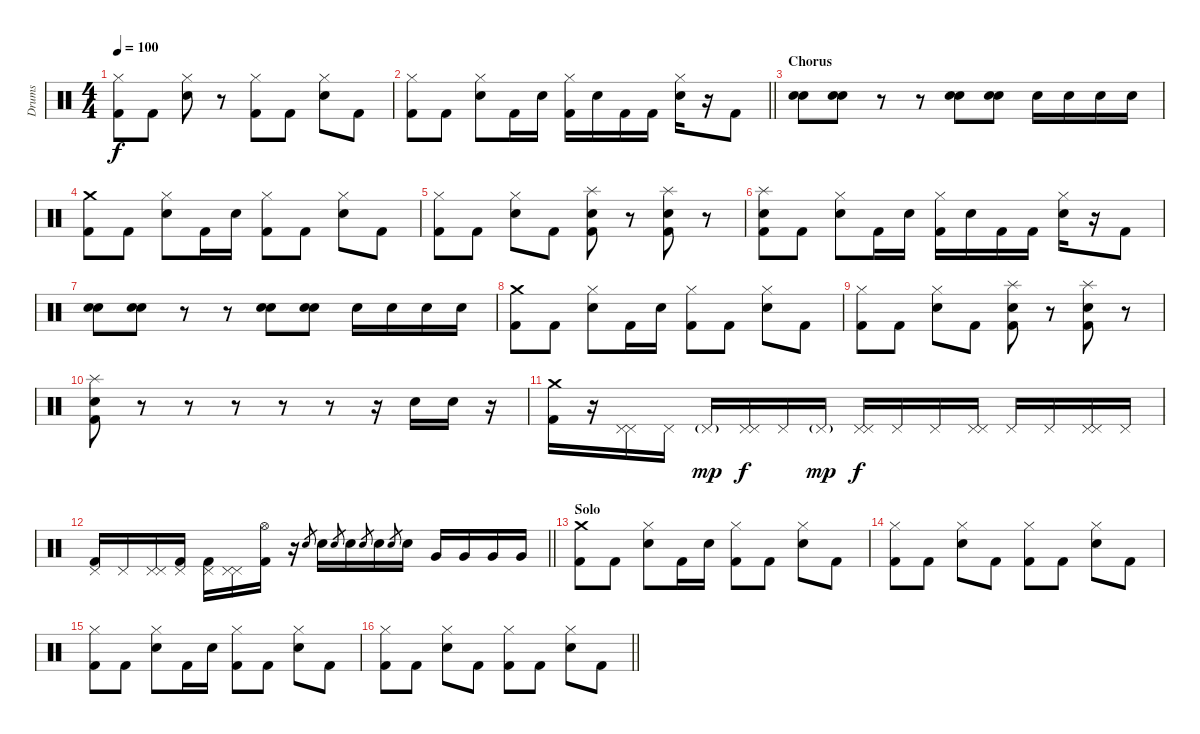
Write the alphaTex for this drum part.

\track ("Drums" "Drums") {instrument percussion}
\staff {score}
\articulation defaults
\ts (4 4)
\tempo 100
\clef neutral
\ks c
("Hi-Hat (closed)" "Kick (hit) 2").8{dy f} "Kick (hit) 2".8 ("Hi-Hat (closed)" "Snare (hit) 2").8 r.8 ("Hi-Hat (closed)" "Kick (hit) 2").8 "Kick (hit) 2".8 ("Hi-Hat (closed)" "Snare (hit) 2").8 "Kick (hit) 2".8 |
\barLineRight lightlight
("Hi-Hat (closed)" "Kick (hit) 2").8 "Kick (hit) 2".8 ("Hi-Hat (closed)" "Snare (hit) 2").8 "Kick (hit) 2".16 "Snare (hit) 2".16 ("Hi-Hat (closed)" "Kick (hit) 2").16 "Snare (hit) 2".16 "Kick (hit) 2".16 "Kick (hit) 2".16 ("Hi-Hat (closed)" "Snare (hit) 2").16 r.16 "Kick (hit) 2".8 |
\section ("" "Chorus")
("Snare (hit) 2" "Snare (hit) 2").8 ("Snare (hit) 2" "Snare (hit) 2").8 r.8 r.8 ("Snare (hit) 2" "Snare (hit) 2").8 ("Snare (hit) 2" "Snare (hit) 2").8 "Snare (hit) 2".16 "Snare (hit) 2".16 "Snare (hit) 2".16 "Snare (hit) 2".16 |
("Crash medium (hit)" "Kick (hit) 2").8 "Kick (hit) 2".8 ("Hi-Hat (closed)" "Snare (hit) 2").8 "Kick (hit) 2".16 "Snare (hit) 2".16 ("Hi-Hat (closed)" "Kick (hit) 2").8 "Kick (hit) 2".8 ("Hi-Hat (closed)" "Snare (hit) 2").8 "Kick (hit) 2".8 |
("Hi-Hat (closed)" "Kick (hit) 2").8 "Kick (hit) 2".8 ("Hi-Hat (closed)" "Snare (hit) 2").8 "Kick (hit) 2".8 ("Splash (hit)" "Snare (hit) 2" "Kick (hit) 2").8 r.8 ("Splash (hit)" "Snare (hit) 2" "Kick (hit) 2").8 r.8 |
("Splash (hit)" "Snare (hit) 2" "Kick (hit) 2").8 "Kick (hit) 2".8 ("Hi-Hat (closed)" "Snare (hit) 2").8 "Kick (hit) 2".16 "Snare (hit) 2".16 ("Hi-Hat (closed)" "Kick (hit) 2").16 "Snare (hit) 2".16 "Kick (hit) 2".16 "Kick (hit) 2".16 ("Hi-Hat (closed)" "Snare (hit) 2").16 r.16 "Kick (hit) 2".8 |
("Snare (hit) 2" "Snare (hit) 2").8 ("Snare (hit) 2" "Snare (hit) 2").8 r.8 r.8 ("Snare (hit) 2" "Snare (hit) 2").8 ("Snare (hit) 2" "Snare (hit) 2").8 "Snare (hit) 2".16 "Snare (hit) 2".16 "Snare (hit) 2".16 "Snare (hit) 2".16 |
("Crash medium (hit)" "Kick (hit) 2").8 "Kick (hit) 2".8 ("Hi-Hat (closed)" "Snare (hit) 2").8 "Kick (hit) 2".16 "Snare (hit) 2".16 ("Hi-Hat (closed)" "Kick (hit) 2").8 "Kick (hit) 2".8 ("Hi-Hat (closed)" "Snare (hit) 2").8 "Kick (hit) 2".8 |
("Hi-Hat (closed)" "Kick (hit) 2").8 "Kick (hit) 2".8 ("Hi-Hat (closed)" "Snare (hit) 2").8 "Kick (hit) 2".8 ("Splash (hit)" "Snare (hit) 2" "Kick (hit) 2").8 r.8 ("Splash (hit)" "Snare (hit) 2" "Kick (hit) 2").8 r.8 |
("Splash (hit)" "Snare (hit) 2" "Kick (hit) 2").8 r.8 r.8 r.8 r.8 r.8 r.16 "Snare (hit) 2".16 "Snare (hit) 2".16 r.16 |
("Crash medium (hit)" "Kick (hit) 2").16 r.16 ("Pedal Hi-Hat (hit)" "Pedal Hi-Hat (hit)").16 "Pedal Hi-Hat (hit)".16 "Pedal Hi-Hat (hit)"{g}.16{dy mp} ("Pedal Hi-Hat (hit)" "Pedal Hi-Hat (hit)").16{dy f} "Pedal Hi-Hat (hit)".16 "Pedal Hi-Hat (hit)"{g}.16{dy mp} ("Pedal Hi-Hat (hit)" "Pedal Hi-Hat (hit)").16{dy f} "Pedal Hi-Hat (hit)".16 "Pedal Hi-Hat (hit)".16 ("Pedal Hi-Hat (hit)" "Pedal Hi-Hat (hit)").16 "Pedal Hi-Hat (hit)".16 "Pedal Hi-Hat (hit)".16 ("Pedal Hi-Hat (hit)" "Pedal Hi-Hat (hit)").16 "Pedal Hi-Hat (hit)".16 |
\barLineRight lightlight
("Pedal Hi-Hat (hit)" "Kick (hit) 2").16 "Pedal Hi-Hat (hit)".16 ("Pedal Hi-Hat (hit)" "Pedal Hi-Hat (hit)").16 ("Pedal Hi-Hat (hit)" "Kick (hit) 2").16 ("Pedal Hi-Hat (hit)" "Kick (hit) 2").16 ("Pedal Hi-Hat (hit)" "Pedal Hi-Hat (hit)").16 ("Hi-Hat (open)" "Kick (hit) 2").16 r.16 "Snare (hit) 2".8{gr} "Snare (hit) 2".16 "Snare (hit) 2".8{gr} "Snare (hit) 2".16 "Snare (hit) 2".8{gr} "Snare (hit) 2".16 "Snare (hit) 2".8{gr} "Snare (hit) 2".16 "Very Low Tom (hit)".16 "Very Low Tom (hit)".16 "Very Low Tom (hit)".16 "Very Low Tom (hit)".16 |
\section ("" "Solo")
("Crash medium (hit)" "Kick (hit) 2").8 "Kick (hit) 2".8 ("Hi-Hat (closed)" "Snare (hit) 2").8 "Kick (hit) 2".16 "Snare (hit) 2".16 ("Hi-Hat (closed)" "Kick (hit) 2").8 "Kick (hit) 2".8 ("Hi-Hat (closed)" "Snare (hit) 2").8 "Kick (hit) 2".8 |
("Hi-Hat (closed)" "Kick (hit) 2").8 "Kick (hit) 2".8 ("Hi-Hat (closed)" "Snare (hit) 2").8 "Kick (hit) 2".8 ("Hi-Hat (closed)" "Kick (hit) 2").8 "Kick (hit) 2".8 ("Hi-Hat (closed)" "Snare (hit) 2").8 "Kick (hit) 2".8 |
("Hi-Hat (closed)" "Kick (hit) 2").8 "Kick (hit) 2".8 ("Hi-Hat (closed)" "Snare (hit) 2").8 "Kick (hit) 2".16 "Snare (hit) 2".16 ("Hi-Hat (closed)" "Kick (hit) 2").8 "Kick (hit) 2".8 ("Hi-Hat (closed)" "Snare (hit) 2").8 "Kick (hit) 2".8 |
\barLineRight lightlight
("Hi-Hat (closed)" "Kick (hit) 2").8 "Kick (hit) 2".8 ("Hi-Hat (closed)" "Snare (hit) 2").8 "Kick (hit) 2".8 ("Hi-Hat (closed)" "Kick (hit) 2").8 "Kick (hit) 2".8 ("Hi-Hat (closed)" "Snare (hit) 2").8 "Kick (hit) 2".8
